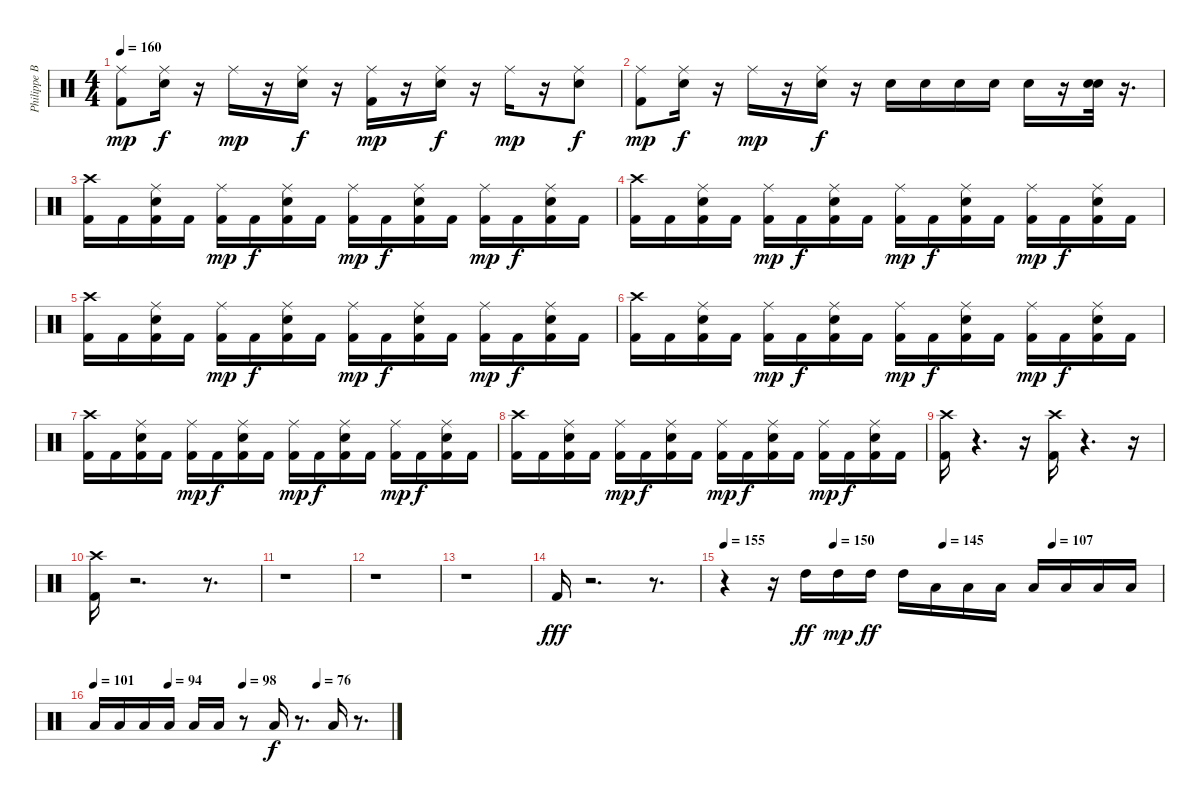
\track ("Philippe Borda" "Philippe B") {instrument percussion}
\staff {score}
\articulation defaults
\ts (4 4)
\tempo 160
\clef neutral
\ks c
("Kick (hit) 2" "Ride (middle)").8{dy mp} ("Snare (hit) 2" "Ride (middle)").16{dy f} r.16 "Ride (middle)".16{dy mp} r.16 ("Snare (hit) 2" "Ride (middle)").16{dy f} r.16 ("Kick (hit) 2" "Ride (middle)").16{dy mp} r.16 ("Snare (hit) 2" "Ride (middle)").16{dy f} r.16 "Ride (middle)".16{dy mp} r.16 ("Snare (hit) 2" "Ride (middle)").8{dy f} |
("Kick (hit) 2" "Ride (middle)").8{dy mp} ("Snare (hit) 2" "Ride (middle)").16{dy f} r.16 "Ride (middle)".16{dy mp} r.16 ("Snare (hit) 2" "Ride (middle)").16{dy f} r.16 "Snare (hit) 2".16 "Snare (hit) 2".16 "Snare (hit) 2".16 "Snare (hit) 2".16 "Snare (hit) 2".16 r.16 ("Snare (hit) 2" "Snare (hit) 2").32 r.16{d} |
("Kick (hit) 2" "Crash high (hit)").16 "Kick (hit) 2".16 ("Kick (hit) 2" "Snare (hit) 2" "Ride (middle)").16 "Kick (hit) 2".16 ("Kick (hit) 2" "Ride (middle)").16{dy mp} "Kick (hit) 2".16{dy f} ("Kick (hit) 2" "Snare (hit) 2" "Ride (middle)").16 "Kick (hit) 2".16 ("Kick (hit) 2" "Ride (middle)").16{dy mp} "Kick (hit) 2".16{dy f} ("Kick (hit) 2" "Snare (hit) 2" "Ride (middle)").16 "Kick (hit) 2".16 ("Kick (hit) 2" "Ride (middle)").16{dy mp} "Kick (hit) 2".16{dy f} ("Kick (hit) 2" "Snare (hit) 2" "Ride (middle)").16 "Kick (hit) 2".16 |
("Kick (hit) 2" "Crash high (hit)").16 "Kick (hit) 2".16 ("Kick (hit) 2" "Snare (hit) 2" "Ride (middle)").16 "Kick (hit) 2".16 ("Kick (hit) 2" "Ride (middle)").16{dy mp} "Kick (hit) 2".16{dy f} ("Kick (hit) 2" "Snare (hit) 2" "Ride (middle)").16 "Kick (hit) 2".16 ("Kick (hit) 2" "Ride (middle)").16{dy mp} "Kick (hit) 2".16{dy f} ("Kick (hit) 2" "Snare (hit) 2" "Ride (middle)").16 "Kick (hit) 2".16 ("Kick (hit) 2" "Ride (middle)").16{dy mp} "Kick (hit) 2".16{dy f} ("Kick (hit) 2" "Snare (hit) 2" "Ride (middle)").16 "Kick (hit) 2".16 |
("Kick (hit) 2" "Crash high (hit)").16 "Kick (hit) 2".16 ("Kick (hit) 2" "Snare (hit) 2" "Ride (middle)").16 "Kick (hit) 2".16 ("Kick (hit) 2" "Ride (middle)").16{dy mp} "Kick (hit) 2".16{dy f} ("Kick (hit) 2" "Snare (hit) 2" "Ride (middle)").16 "Kick (hit) 2".16 ("Kick (hit) 2" "Ride (middle)").16{dy mp} "Kick (hit) 2".16{dy f} ("Kick (hit) 2" "Snare (hit) 2" "Ride (middle)").16 "Kick (hit) 2".16 ("Kick (hit) 2" "Ride (middle)").16{dy mp} "Kick (hit) 2".16{dy f} ("Kick (hit) 2" "Snare (hit) 2" "Ride (middle)").16 "Kick (hit) 2".16 |
("Kick (hit) 2" "Crash high (hit)").16 "Kick (hit) 2".16 ("Kick (hit) 2" "Snare (hit) 2" "Ride (middle)").16 "Kick (hit) 2".16 ("Kick (hit) 2" "Ride (middle)").16{dy mp} "Kick (hit) 2".16{dy f} ("Kick (hit) 2" "Snare (hit) 2" "Ride (middle)").16 "Kick (hit) 2".16 ("Kick (hit) 2" "Ride (middle)").16{dy mp} "Kick (hit) 2".16{dy f} ("Kick (hit) 2" "Snare (hit) 2" "Ride (middle)").16 "Kick (hit) 2".16 ("Kick (hit) 2" "Ride (middle)").16{dy mp} "Kick (hit) 2".16{dy f} ("Kick (hit) 2" "Snare (hit) 2" "Ride (middle)").16 "Kick (hit) 2".16 |
("Kick (hit) 2" "Crash high (hit)").16 "Kick (hit) 2".16 ("Kick (hit) 2" "Snare (hit) 2" "Ride (middle)").16 "Kick (hit) 2".16 ("Kick (hit) 2" "Ride (middle)").16{dy mp} "Kick (hit) 2".16{dy f} ("Kick (hit) 2" "Snare (hit) 2" "Ride (middle)").16 "Kick (hit) 2".16 ("Kick (hit) 2" "Ride (middle)").16{dy mp} "Kick (hit) 2".16{dy f} ("Kick (hit) 2" "Snare (hit) 2" "Ride (middle)").16 "Kick (hit) 2".16 ("Kick (hit) 2" "Ride (middle)").16{dy mp} "Kick (hit) 2".16{dy f} ("Kick (hit) 2" "Snare (hit) 2" "Ride (middle)").16 "Kick (hit) 2".16 |
("Kick (hit) 2" "Crash high (hit)").16 "Kick (hit) 2".16 ("Kick (hit) 2" "Snare (hit) 2" "Ride (middle)").16 "Kick (hit) 2".16 ("Kick (hit) 2" "Ride (middle)").16{dy mp} "Kick (hit) 2".16{dy f} ("Kick (hit) 2" "Snare (hit) 2" "Ride (middle)").16 "Kick (hit) 2".16 ("Kick (hit) 2" "Ride (middle)").16{dy mp} "Kick (hit) 2".16{dy f} ("Kick (hit) 2" "Snare (hit) 2" "Ride (middle)").16 "Kick (hit) 2".16 ("Kick (hit) 2" "Ride (middle)").16{dy mp} "Kick (hit) 2".16{dy f} ("Kick (hit) 2" "Snare (hit) 2" "Ride (middle)").16 "Kick (hit) 2".16 |
("Kick (hit) 2" "Crash high (hit)").16 r.4{d} r.16 ("Kick (hit) 2" "Crash high (hit)").16 r.4{d} r.16 |
("Kick (hit) 2" "Crash high (hit)").16 r.2{d} r.8{d} |
r.1 |
r.1 |
r.1 |
"Kick (hit) 2".16{dy fff} r.2{d} r.8{d} |
\tempo 155
\tempo (150 0.25)
\tempo (145 0.5)
\tempo (107 0.75)
r.4 r.16 "High Tom (hit)".16{dy ff} "High Tom (hit)".16{dy mp} "High Tom (hit)".16{dy ff} "High Tom (hit)".16 "Low Tom (hit)".16 "Low Tom (hit)".16 "Low Tom (hit)".16 "Low Tom (hit)".16 "Low Floor Tom (hit)".16 "Low Floor Tom (hit)".16 "Low Floor Tom (hit)".16 |
\tempo 101
\tempo (94 0.25)
\tempo (98 0.5)
\tempo (76 0.75)
"Low Floor Tom (hit)".16 "Low Floor Tom (hit)".16 "Low Floor Tom (hit)".16 "Low Floor Tom (hit)".16 "Low Floor Tom (hit)".16 "Low Floor Tom (hit)".16 r.8 "Low Floor Tom (hit)".16{dy f} r.8{d} "Low Floor Tom (hit)".16 r.8{d}
